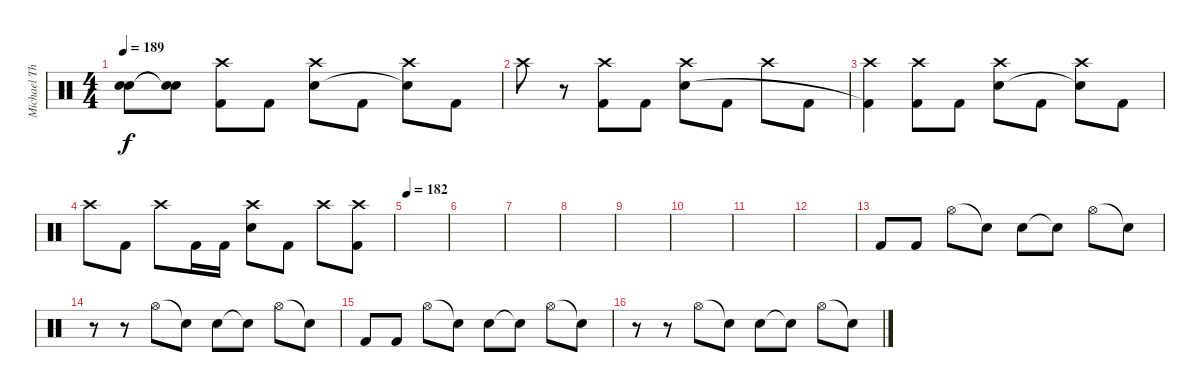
\track ("Michael Thomas" "Michael Th") {instrument percussion}
\staff {score}
\articulation defaults
\ts (4 4)
\tempo 189
\clef neutral
\ks c
("Snare (hit)"{t} "Snare (hit)"{t}).8{dy f} ("Snare (hit)"{t} "Snare (hit)"{t}).8 ("Crash high (hit)" "Kick (hit) 2").8 "Kick (hit) 2".8 ("Crash high (hit)" "Electric Snare (hit)").8 "Kick (hit) 2".8 ("Crash high (hit)" "Snare (hit)"{t}).8 "Kick (hit) 2".8 |
"Crash high (hit)".8 r.8 ("Crash high (hit)" "Kick (hit) 2").8 "Kick (hit) 2".8 ("Crash high (hit)" "Electric Snare (hit)").8 "Kick (hit) 2".8 "Crash high (hit)".8 "Kick (hit) 2".8 |
("Crash high (hit)" "Kick (hit) 2"{t}).4 ("Crash high (hit)" "Kick (hit) 2").8 "Kick (hit) 2".8 ("Crash high (hit)" "Electric Snare (hit)").8 "Kick (hit) 2".8 ("Crash high (hit)" "Snare (hit)"{t}).8 "Kick (hit) 2".8 |
"Crash high (hit)".8 "Kick (hit) 2".8 "Crash high (hit)".8 "Kick (hit) 2".16 "Kick (hit) 2".16 ("Crash high (hit)" "Electric Snare (hit)").8 "Kick (hit) 2".8 "Crash high (hit)".8 ("Crash high (hit)" "Kick (hit) 2").8 |
\tempo 182
|
|
|
|
|
|
|
|
"Kick (hit) 2".8 "Kick (hit) 2".8 "Hi-Hat (open)".8 "Snare (hit)"{t}.8 "Electric Snare (hit)".8 "Snare (hit)"{t}.8 "Hi-Hat (open)".8 "Snare (hit)"{t}.8 |
r.8 r.8 "Hi-Hat (open)".8 "Snare (hit)"{t}.8 "Electric Snare (hit)".8 "Snare (hit)"{t}.8 "Hi-Hat (open)".8 "Snare (hit)"{t}.8 |
"Kick (hit) 2".8 "Kick (hit) 2".8 "Hi-Hat (open)".8 "Snare (hit)"{t}.8 "Electric Snare (hit)".8 "Snare (hit)"{t}.8 "Hi-Hat (open)".8 "Snare (hit)"{t}.8 |
r.8 r.8 "Hi-Hat (open)".8 "Snare (hit)"{t}.8 "Electric Snare (hit)".8 "Snare (hit)"{t}.8 "Hi-Hat (open)".8 "Snare (hit)"{t}.8
